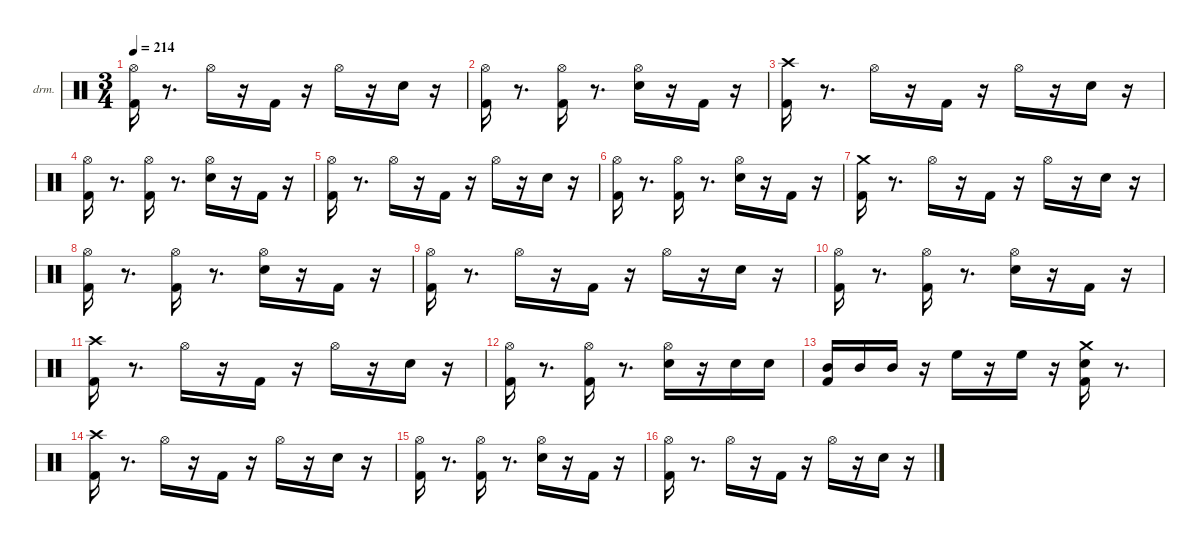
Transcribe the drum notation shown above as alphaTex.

\hideDynamics
\bracketExtendMode nobrackets
\firstSystemTrackNameOrientation horizontal
\otherSystemsTrackNameOrientation horizontal
\track ("EZdrummer 3" "drm.") {instrument percussion}
\staff {score}
\articulation defaults
\ts (3 4)
\tempo 214
\clef neutral
\ks aminor
("Kick (hit) 2" "Hi-Hat (open)"{acc #}).16{dy fff beam Down} r.8{d beam Down} "Hi-Hat (open)"{acc #}.16{dy mf beam Down} r.16{beam Down} "Kick (hit) 2".16{dy ff beam Up} r.16{beam Up} "Hi-Hat (open)"{acc #}.16{dy f beam Down} r.16{beam Down} "Snare (hit) 2".16{dy ff beam Down} r.16{beam Down} |
("Kick (hit) 2" "Hi-Hat (open)"{acc #}).16{dy fff beam Down} r.8{d beam Down} ("Kick (hit) 2" "Hi-Hat (open)"{acc #}).16{dy ff beam Down} r.8{d beam Down} ("Snare (hit) 2" "Hi-Hat (open)"{acc #}).16{dy f beam Down} r.16{beam Down} "Kick (hit) 2".16{dy mp beam Up} r.16{beam Up} |
("Kick (hit) 2" "Crash high (hit)"{acc #}).16{dy fff beam Down} r.8{d beam Down} "Hi-Hat (open)"{acc #}.16{dy mf beam Down} r.16{beam Down} "Kick (hit) 2".16{dy ff beam Up} r.16{beam Up} "Hi-Hat (open)"{acc #}.16{dy f beam Down} r.16{beam Down} "Snare (hit) 2".16{dy ff beam Down} r.16{beam Down} |
("Kick (hit) 2" "Hi-Hat (open)"{acc #}).16{beam Down} r.8{d beam Down} ("Kick (hit) 2" "Hi-Hat (open)"{acc #}).16{dy f beam Down} r.8{d beam Down} ("Snare (hit) 2" "Hi-Hat (open)"{acc #}).16{beam Down} r.16{beam Down} "Kick (hit) 2".16{dy mp beam Up} r.16{beam Up} |
("Kick (hit) 2" "Hi-Hat (open)"{acc #}).16{dy fff beam Down} r.8{d beam Down} "Hi-Hat (open)"{acc #}.16{dy mf beam Down} r.16{beam Down} "Kick (hit) 2".16{dy ff beam Up} r.16{beam Up} "Hi-Hat (open)"{acc #}.16{dy f beam Down} r.16{beam Down} "Snare (hit) 2".16{dy ff beam Down} r.16{beam Down} |
("Kick (hit) 2" "Hi-Hat (open)"{acc #}).16{dy fff beam Down} r.8{d beam Down} ("Kick (hit) 2" "Hi-Hat (open)"{acc #}).16{dy ff beam Down} r.8{d beam Down} ("Snare (hit) 2" "Hi-Hat (open)"{acc #}).16{dy f beam Down} r.16{beam Down} "Kick (hit) 2".16{dy mp beam Up} r.16{beam Up} |
("Kick (hit) 2" "Crash medium (hit)").16{dy fff beam Down} r.8{d beam Down} "Hi-Hat (open)"{acc #}.16{dy mf beam Down} r.16{beam Down} "Kick (hit) 2".16{dy ff beam Up} r.16{beam Up} "Hi-Hat (open)"{acc #}.16{dy f beam Down} r.16{beam Down} "Snare (hit) 2".16{dy ff beam Down} r.16{beam Down} |
("Kick (hit) 2" "Hi-Hat (open)"{acc #}).16{beam Down} r.8{d beam Down} ("Kick (hit) 2" "Hi-Hat (open)"{acc #}).16{dy mf beam Down} r.8{d beam Down} ("Snare (hit) 2" "Hi-Hat (open)"{acc #}).16{dy f beam Down} r.16{beam Down} "Kick (hit) 2".16{dy mp beam Up} r.16{beam Up} |
("Kick (hit) 2" "Hi-Hat (open)"{acc #}).16{dy fff beam Down} r.8{d beam Down} "Hi-Hat (open)"{acc #}.16{dy mf beam Down} r.16{beam Down} "Kick (hit) 2".16{dy ff beam Up} r.16{beam Up} "Hi-Hat (open)"{acc #}.16{dy f beam Down} r.16{beam Down} "Snare (hit) 2".16{dy ff beam Down} r.16{beam Down} |
("Kick (hit) 2" "Hi-Hat (open)"{acc #}).16{dy fff beam Down} r.8{d beam Down} ("Kick (hit) 2" "Hi-Hat (open)"{acc #}).16{dy ff beam Down} r.8{d beam Down} ("Snare (hit) 2" "Hi-Hat (open)"{acc #}).16{dy f beam Down} r.16{beam Down} "Kick (hit) 2".16{dy mp beam Up} r.16{beam Up} |
("Kick (hit) 2" "Crash high (hit)"{acc #}).16{dy ff beam Down} r.8{d beam Down} "Hi-Hat (open)"{acc #}.16{dy f beam Down} r.16{beam Down} "Kick (hit) 2".16{dy ff beam Up} r.16{beam Up} "Hi-Hat (open)"{acc #}.16{beam Down} r.16{beam Down} "Snare (hit) 2".16{beam Down} r.16{beam Down} |
("Kick (hit) 2" "Hi-Hat (open)"{acc #}).16{dy f beam Down} r.8{d beam Down} ("Kick (hit) 2" "Hi-Hat (open)"{acc #}).16{dy mf beam Down} r.8{d beam Down} ("Snare (hit) 2" "Hi-Hat (open)"{acc #}).16{dy ff beam Down} r.16{beam Down} "Snare (hit) 2".16{dy mf beam Down} "Snare (hit) 2".16{dy pp beam Down} |
("Kick (hit) 2" "Mid Tom (hit)").16{dy ff beam Up} "Mid Tom (hit)".16{dy mf beam Up} "Mid Tom (hit)".16{dy fff beam Up} r.16{beam Up} "High Floor Tom (hit)".16{dy ff beam Down} r.16{beam Down} "High Floor Tom (hit)".16{dy mf beam Down} r.16{beam Down} ("Kick (hit) 2" "Snare (hit) 2" "Crash medium (hit)").16{dy f beam Down} r.8{d beam Down} |
("Kick (hit) 2" "Crash high (hit)"{acc #}).16{dy fff beam Down} r.8{d beam Down} "Hi-Hat (open)"{acc #}.16{dy mf beam Down} r.16{beam Down} "Kick (hit) 2".16{dy ff beam Up} r.16{beam Up} "Hi-Hat (open)"{acc #}.16{dy f beam Down} r.16{beam Down} "Snare (hit) 2".16{dy ff beam Down} r.16{beam Down} |
("Kick (hit) 2" "Hi-Hat (open)"{acc #}).16{beam Down} r.8{d beam Down} ("Kick (hit) 2" "Hi-Hat (open)"{acc #}).16{dy f beam Down} r.8{d beam Down} ("Snare (hit) 2" "Hi-Hat (open)"{acc #}).16{beam Down} r.16{beam Down} "Kick (hit) 2".16{dy mp beam Up} r.16{beam Up} |
("Kick (hit) 2" "Hi-Hat (open)"{acc #}).16{dy fff beam Down} r.8{d beam Down} "Hi-Hat (open)"{acc #}.16{dy mf beam Down} r.16{beam Down} "Kick (hit) 2".16{dy ff beam Up} r.16{beam Up} "Hi-Hat (open)"{acc #}.16{dy f beam Down} r.16{beam Down} "Snare (hit) 2".16{dy ff beam Down} r.16{beam Down}
